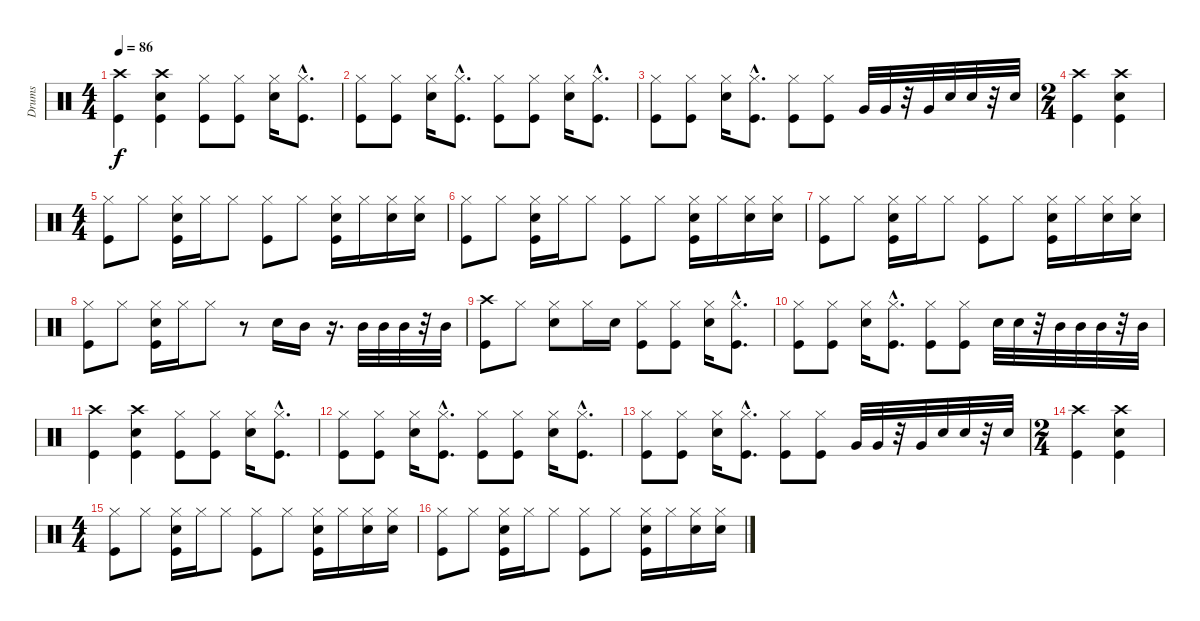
\track ("Drums" "Drums") {instrument percussion}
\staff {score}
\articulation defaults
\ts (4 4)
\tempo 86
\clef neutral
\ks c
("Crash high (hit)" "Kick (hit)").4{dy f} ("Crash high (hit)" "Snare (hit) 2" "Kick (hit)").4 ("Kick (hit)" "Hi-Hat (closed)").8 ("Kick (hit)" "Hi-Hat (closed)").8 ("Hi-Hat (closed)" "Snare (hit) 2").16 ("Hi-Hat (closed)"{hac} "Kick (hit)"{hac}).8{d} |
("Kick (hit)" "Hi-Hat (closed)").8 ("Hi-Hat (closed)" "Kick (hit)").8 ("Snare (hit) 2" "Hi-Hat (closed)").16 ("Hi-Hat (closed)"{hac} "Kick (hit)"{hac}).8{d} ("Hi-Hat (closed)" "Kick (hit)").8 ("Hi-Hat (closed)" "Kick (hit)").8 ("Snare (hit) 2" "Hi-Hat (closed)").16 ("Hi-Hat (closed)"{hac} "Kick (hit)"{hac}).8{d} |
("Hi-Hat (closed)" "Kick (hit)").8 ("Hi-Hat (closed)" "Kick (hit)").8 ("Hi-Hat (closed)" "Snare (hit) 2").16 ("Hi-Hat (closed)"{hac} "Kick (hit)"{hac}).8{d} ("Kick (hit)" "Hi-Hat (closed)").8 ("Kick (hit)" "Hi-Hat (closed)").8 "Very Low Tom (hit)".32 "Very Low Tom (hit)".32 r.32 "Very Low Tom (hit)".32 "Snare (hit) 2".32 "Snare (hit) 2".32 r.32 "Snare (hit) 2".32 |
\ts (2 4)
("Crash high (hit)" "Kick (hit)").4 ("Kick (hit)" "Snare (hit) 2" "Crash high (hit)").4 |
\ts (4 4)
("Kick (hit)" "Hi-Hat (closed)").8 "Hi-Hat (closed)".8 ("Kick (hit)" "Hi-Hat (closed)" "Snare (hit) 2").16 "Hi-Hat (closed)".16 "Hi-Hat (closed)".8 ("Hi-Hat (closed)" "Kick (hit)").8 "Hi-Hat (closed)".8 ("Kick (hit)" "Hi-Hat (closed)" "Snare (hit) 2").16 "Hi-Hat (closed)".16 ("Hi-Hat (closed)" "Snare (hit) 2").16 ("Hi-Hat (closed)" "Snare (hit) 2").16 |
("Hi-Hat (closed)" "Kick (hit)").8 "Hi-Hat (closed)".8 ("Kick (hit)" "Hi-Hat (closed)" "Snare (hit) 2").16 "Hi-Hat (closed)".16 "Hi-Hat (closed)".8 ("Hi-Hat (closed)" "Kick (hit)").8 "Hi-Hat (closed)".8 ("Kick (hit)" "Hi-Hat (closed)" "Snare (hit) 2").16 "Hi-Hat (closed)".16 ("Hi-Hat (closed)" "Snare (hit) 2").16 ("Hi-Hat (closed)" "Snare (hit) 2").16 |
("Hi-Hat (closed)" "Kick (hit)").8 "Hi-Hat (closed)".8 ("Kick (hit)" "Hi-Hat (closed)" "Snare (hit) 2").16 "Hi-Hat (closed)".16 "Hi-Hat (closed)".8 ("Hi-Hat (closed)" "Kick (hit)").8 "Hi-Hat (closed)".8 ("Kick (hit)" "Hi-Hat (closed)" "Snare (hit) 2").16 "Hi-Hat (closed)".16 ("Hi-Hat (closed)" "Snare (hit) 2").16 ("Hi-Hat (closed)" "Snare (hit) 2").16 |
("Hi-Hat (closed)" "Kick (hit)").8 "Hi-Hat (closed)".8 ("Kick (hit)" "Hi-Hat (closed)" "Snare (hit) 2").16 "Hi-Hat (closed)".16 "Hi-Hat (closed)".8 r.8 "Snare (hit) 2".16 "Mid Tom (hit)".16 r.16{d} "Mid Tom (hit)".32 "Mid Tom (hit)".32 "Mid Tom (hit)".32 r.32 "Mid Tom (hit)".32 |
("Crash high (hit)" "Kick (hit)").8 "Hi-Hat (closed)".8 ("Snare (hit) 2" "Hi-Hat (closed)").8 "Hi-Hat (closed)".16 "Snare (hit) 2".16 ("Hi-Hat (closed)" "Kick (hit)").8 ("Hi-Hat (closed)" "Kick (hit)").8 ("Hi-Hat (closed)" "Snare (hit) 2").16 ("Hi-Hat (closed)"{hac} "Kick (hit)"{hac}).8{d} |
("Hi-Hat (closed)" "Kick (hit)").8 ("Hi-Hat (closed)" "Kick (hit)").8 ("Hi-Hat (closed)" "Snare (hit) 2").16 ("Hi-Hat (closed)"{hac} "Kick (hit)"{hac}).8{d} ("Hi-Hat (closed)" "Kick (hit)").8 ("Hi-Hat (closed)" "Kick (hit)").8 "Snare (hit) 2".32 "Snare (hit) 2".32 r.32 "Mid Tom (hit)".32 "Mid Tom (hit)".32 "Mid Tom (hit)".32 r.32 "Mid Tom (hit)".32 |
("Crash high (hit)" "Kick (hit)").4 ("Crash high (hit)" "Snare (hit) 2" "Kick (hit)").4 ("Kick (hit)" "Hi-Hat (closed)").8 ("Kick (hit)" "Hi-Hat (closed)").8 ("Hi-Hat (closed)" "Snare (hit) 2").16 ("Hi-Hat (closed)"{hac} "Kick (hit)"{hac}).8{d} |
("Kick (hit)" "Hi-Hat (closed)").8 ("Hi-Hat (closed)" "Kick (hit)").8 ("Snare (hit) 2" "Hi-Hat (closed)").16 ("Hi-Hat (closed)"{hac} "Kick (hit)"{hac}).8{d} ("Hi-Hat (closed)" "Kick (hit)").8 ("Hi-Hat (closed)" "Kick (hit)").8 ("Snare (hit) 2" "Hi-Hat (closed)").16 ("Hi-Hat (closed)"{hac} "Kick (hit)"{hac}).8{d} |
("Hi-Hat (closed)" "Kick (hit)").8 ("Hi-Hat (closed)" "Kick (hit)").8 ("Hi-Hat (closed)" "Snare (hit) 2").16 ("Hi-Hat (closed)"{hac} "Kick (hit)"{hac}).8{d} ("Kick (hit)" "Hi-Hat (closed)").8 ("Kick (hit)" "Hi-Hat (closed)").8 "Very Low Tom (hit)".32 "Very Low Tom (hit)".32 r.32 "Very Low Tom (hit)".32 "Snare (hit) 2".32 "Snare (hit) 2".32 r.32 "Snare (hit) 2".32 |
\ts (2 4)
("Crash high (hit)" "Kick (hit)").4 ("Kick (hit)" "Snare (hit) 2" "Crash high (hit)").4 |
\ts (4 4)
("Kick (hit)" "Hi-Hat (closed)").8 "Hi-Hat (closed)".8 ("Kick (hit)" "Hi-Hat (closed)" "Snare (hit) 2").16 "Hi-Hat (closed)".16 "Hi-Hat (closed)".8 ("Hi-Hat (closed)" "Kick (hit)").8 "Hi-Hat (closed)".8 ("Kick (hit)" "Hi-Hat (closed)" "Snare (hit) 2").16 "Hi-Hat (closed)".16 ("Hi-Hat (closed)" "Snare (hit) 2").16 ("Hi-Hat (closed)" "Snare (hit) 2").16 |
("Hi-Hat (closed)" "Kick (hit)").8 "Hi-Hat (closed)".8 ("Kick (hit)" "Hi-Hat (closed)" "Snare (hit) 2").16 "Hi-Hat (closed)".16 "Hi-Hat (closed)".8 ("Hi-Hat (closed)" "Kick (hit)").8 "Hi-Hat (closed)".8 ("Kick (hit)" "Hi-Hat (closed)" "Snare (hit) 2").16 "Hi-Hat (closed)".16 ("Hi-Hat (closed)" "Snare (hit) 2").16 ("Hi-Hat (closed)" "Snare (hit) 2").16
